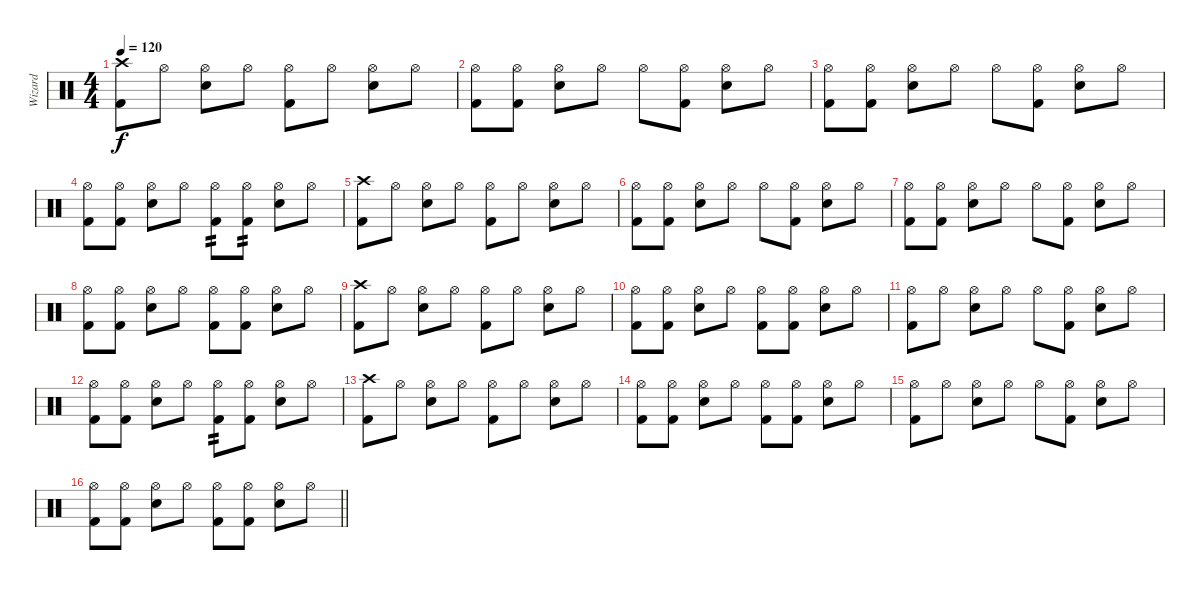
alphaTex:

\track ("Wizard" "Wizard") {instrument percussion}
\staff {score}
\articulation defaults
\ts (4 4)
\tempo 120
\clef neutral
\ks c
("Crash high (hit)" "Kick (hit) 2").8{dy f} "Hi-Hat (open)".8 ("Hi-Hat (open)" "Snare (hit) 2").8 "Hi-Hat (open)".8 ("Hi-Hat (open)" "Kick (hit) 2").8 "Hi-Hat (open)".8 ("Hi-Hat (open)" "Snare (hit) 2").8 "Hi-Hat (open)".8 |
("Hi-Hat (open)" "Kick (hit) 2").8 ("Hi-Hat (open)" "Kick (hit) 2").8 ("Hi-Hat (open)" "Snare (hit) 2").8 "Hi-Hat (open)".8 "Hi-Hat (open)".8 ("Hi-Hat (open)" "Kick (hit) 2").8 ("Hi-Hat (open)" "Snare (hit) 2").8 "Hi-Hat (open)".8 |
("Hi-Hat (open)" "Kick (hit) 2").8 ("Hi-Hat (open)" "Kick (hit) 2").8 ("Hi-Hat (open)" "Snare (hit) 2").8 "Hi-Hat (open)".8 "Hi-Hat (open)".8 ("Hi-Hat (open)" "Kick (hit) 2").8 ("Hi-Hat (open)" "Snare (hit) 2").8 "Hi-Hat (open)".8 |
("Hi-Hat (open)" "Kick (hit) 2").8 ("Hi-Hat (open)" "Kick (hit) 2").8 ("Hi-Hat (open)" "Snare (hit) 2").8 "Hi-Hat (open)".8 ("Hi-Hat (open)" "Kick (hit) 2").8{tp 2} ("Hi-Hat (open)" "Kick (hit) 2").8{tp 2} ("Hi-Hat (open)" "Snare (hit) 2").8 "Hi-Hat (open)".8 |
("Crash high (hit)" "Kick (hit) 2").8 "Hi-Hat (open)".8 ("Hi-Hat (open)" "Snare (hit) 2").8 "Hi-Hat (open)".8 ("Hi-Hat (open)" "Kick (hit) 2").8 "Hi-Hat (open)".8 ("Hi-Hat (open)" "Snare (hit) 2").8 "Hi-Hat (open)".8 |
("Hi-Hat (open)" "Kick (hit) 2").8 ("Hi-Hat (open)" "Kick (hit) 2").8 ("Hi-Hat (open)" "Snare (hit) 2").8 "Hi-Hat (open)".8 "Hi-Hat (open)".8 ("Hi-Hat (open)" "Kick (hit) 2").8 ("Hi-Hat (open)" "Snare (hit) 2").8 "Hi-Hat (open)".8 |
("Hi-Hat (open)" "Kick (hit) 2").8 ("Hi-Hat (open)" "Kick (hit) 2").8 ("Hi-Hat (open)" "Snare (hit) 2").8 "Hi-Hat (open)".8 "Hi-Hat (open)".8 ("Hi-Hat (open)" "Kick (hit) 2").8 ("Hi-Hat (open)" "Snare (hit) 2").8 "Hi-Hat (open)".8 |
("Hi-Hat (open)" "Kick (hit) 2").8 ("Hi-Hat (open)" "Kick (hit) 2").8 ("Hi-Hat (open)" "Snare (hit) 2").8 "Hi-Hat (open)".8 ("Hi-Hat (open)" "Kick (hit) 2").8 ("Hi-Hat (open)" "Kick (hit) 2").8 ("Hi-Hat (open)" "Snare (hit) 2").8 "Hi-Hat (open)".8 |
("Crash high (hit)" "Kick (hit) 2").8 "Hi-Hat (open)".8 ("Hi-Hat (open)" "Snare (hit) 2").8 "Hi-Hat (open)".8 ("Hi-Hat (open)" "Kick (hit) 2").8 "Hi-Hat (open)".8 ("Hi-Hat (open)" "Snare (hit) 2").8 "Hi-Hat (open)".8 |
("Hi-Hat (open)" "Kick (hit) 2").8 ("Hi-Hat (open)" "Kick (hit) 2").8 ("Hi-Hat (open)" "Snare (hit) 2").8 "Hi-Hat (open)".8 ("Hi-Hat (open)" "Kick (hit) 2").8 ("Hi-Hat (open)" "Kick (hit) 2").8 ("Hi-Hat (open)" "Snare (hit) 2").8 "Hi-Hat (open)".8 |
("Hi-Hat (open)" "Kick (hit) 2").8 "Hi-Hat (open)".8 ("Hi-Hat (open)" "Snare (hit) 2").8 "Hi-Hat (open)".8 "Hi-Hat (open)".8 ("Hi-Hat (open)" "Kick (hit) 2").8 ("Hi-Hat (open)" "Snare (hit) 2").8 "Hi-Hat (open)".8 |
("Hi-Hat (open)" "Kick (hit) 2").8 ("Hi-Hat (open)" "Kick (hit) 2").8 ("Hi-Hat (open)" "Snare (hit) 2").8 "Hi-Hat (open)".8 ("Hi-Hat (open)" "Kick (hit) 2").8{tp 2} ("Hi-Hat (open)" "Kick (hit) 2").8 ("Hi-Hat (open)" "Snare (hit) 2").8 "Hi-Hat (open)".8 |
("Crash high (hit)" "Kick (hit) 2").8 "Hi-Hat (open)".8 ("Hi-Hat (open)" "Snare (hit) 2").8 "Hi-Hat (open)".8 ("Hi-Hat (open)" "Kick (hit) 2").8 "Hi-Hat (open)".8 ("Hi-Hat (open)" "Snare (hit) 2").8 "Hi-Hat (open)".8 |
("Hi-Hat (open)" "Kick (hit) 2").8 ("Hi-Hat (open)" "Kick (hit) 2").8 ("Hi-Hat (open)" "Snare (hit) 2").8 "Hi-Hat (open)".8 ("Hi-Hat (open)" "Kick (hit) 2").8 ("Hi-Hat (open)" "Kick (hit) 2").8 ("Hi-Hat (open)" "Snare (hit) 2").8 "Hi-Hat (open)".8 |
("Hi-Hat (open)" "Kick (hit) 2").8 "Hi-Hat (open)".8 ("Hi-Hat (open)" "Snare (hit) 2").8 "Hi-Hat (open)".8 "Hi-Hat (open)".8 ("Hi-Hat (open)" "Kick (hit) 2").8 ("Hi-Hat (open)" "Snare (hit) 2").8 "Hi-Hat (open)".8 |
\barLineRight lightlight
("Hi-Hat (open)" "Kick (hit) 2").8 ("Hi-Hat (open)" "Kick (hit) 2").8 ("Hi-Hat (open)" "Snare (hit) 2").8 "Hi-Hat (open)".8 ("Hi-Hat (open)" "Kick (hit) 2").8 ("Hi-Hat (open)" "Kick (hit) 2").8 ("Hi-Hat (open)" "Snare (hit) 2").8 "Hi-Hat (open)".8
